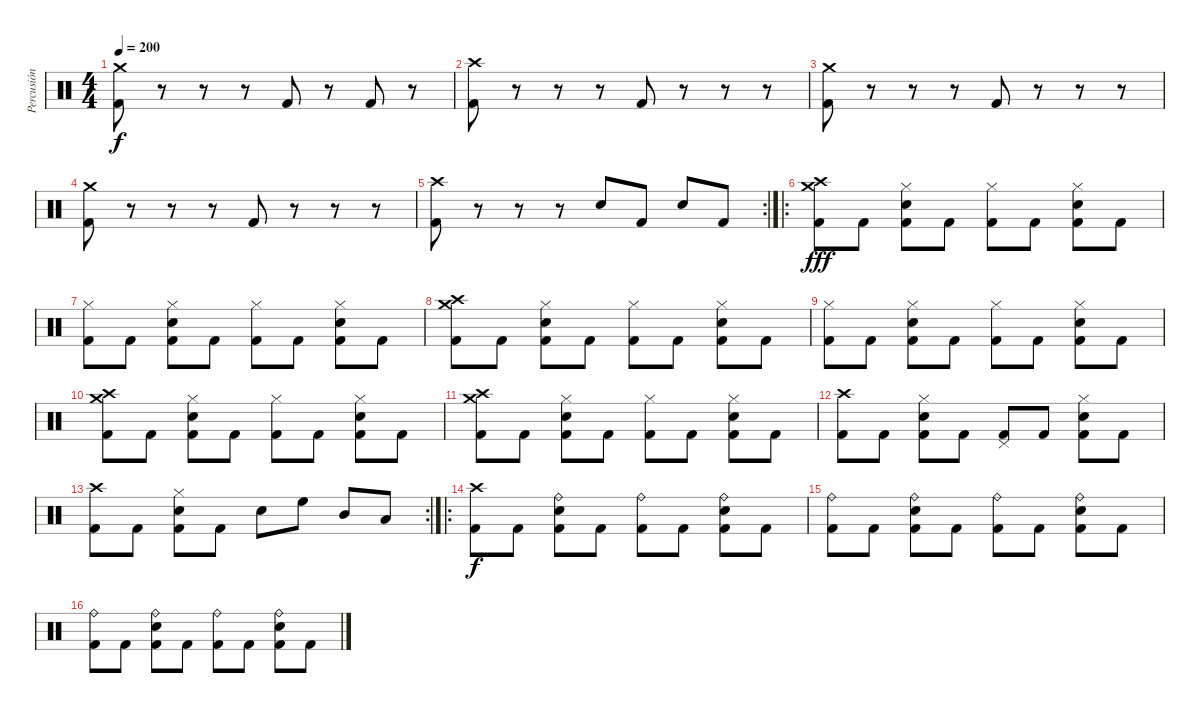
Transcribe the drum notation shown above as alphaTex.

\track ("Percusión" "Percusión") {instrument percussion}
\staff {score}
\articulation defaults
\ts (4 4)
\tempo 200
\clef neutral
\ks c
("Crash medium (hit)" "Kick (hit) 2").8{dy f} r.8 r.8 r.8 "Kick (hit) 2".8 r.8 "Kick (hit) 2".8 r.8 |
("Crash high (hit)" "Kick (hit) 2").8 r.8 r.8 r.8 "Kick (hit) 2".8 r.8 r.8 r.8 |
("Crash medium (hit)" "Kick (hit) 2").8 r.8 r.8 r.8 "Kick (hit) 2".8 r.8 r.8 r.8 |
("Crash medium (hit)" "Kick (hit) 2").8 r.8 r.8 r.8 "Kick (hit) 2".8 r.8 r.8 r.8 |
\rc 2
("Crash high (hit)" "Kick (hit) 2").8 r.8 r.8 r.8 "Electric Snare (hit)".8 "Kick (hit) 2".8 "Electric Snare (hit)".8 "Kick (hit) 2".8 |
\ro
("Crash high (hit)" "Crash medium (hit)" "Kick (hit) 2").8{dy fff} "Kick (hit) 2".8 ("Hi-Hat (closed)" "Electric Snare (hit)" "Kick (hit) 2").8 "Kick (hit) 2".8 ("Hi-Hat (closed)" "Kick (hit) 2").8 "Kick (hit) 2".8 ("Hi-Hat (closed)" "Electric Snare (hit)" "Kick (hit) 2").8 "Kick (hit) 2".8 |
("Hi-Hat (closed)" "Kick (hit) 2").8 "Kick (hit) 2".8 ("Hi-Hat (closed)" "Electric Snare (hit)" "Kick (hit) 2").8 "Kick (hit) 2".8 ("Hi-Hat (closed)" "Kick (hit) 2").8 "Kick (hit) 2".8 ("Hi-Hat (closed)" "Electric Snare (hit)" "Kick (hit) 2").8 "Kick (hit) 2".8 |
("Crash high (hit)" "Crash medium (hit)" "Kick (hit) 2").8 "Kick (hit) 2".8 ("Hi-Hat (closed)" "Electric Snare (hit)" "Kick (hit) 2").8 "Kick (hit) 2".8 ("Hi-Hat (closed)" "Kick (hit) 2").8 "Kick (hit) 2".8 ("Hi-Hat (closed)" "Electric Snare (hit)" "Kick (hit) 2").8 "Kick (hit) 2".8 |
("Hi-Hat (closed)" "Kick (hit) 2").8 "Kick (hit) 2".8 ("Hi-Hat (closed)" "Electric Snare (hit)" "Kick (hit) 2").8 "Kick (hit) 2".8 ("Hi-Hat (closed)" "Kick (hit) 2").8 "Kick (hit) 2".8 ("Hi-Hat (closed)" "Electric Snare (hit)" "Kick (hit) 2").8 "Kick (hit) 2".8 |
("Crash high (hit)" "Crash medium (hit)" "Kick (hit) 2").8 "Kick (hit) 2".8 ("Hi-Hat (closed)" "Electric Snare (hit)" "Kick (hit) 2").8 "Kick (hit) 2".8 ("Hi-Hat (closed)" "Kick (hit) 2").8 "Kick (hit) 2".8 ("Hi-Hat (closed)" "Electric Snare (hit)" "Kick (hit) 2").8 "Kick (hit) 2".8 |
("Crash high (hit)" "Crash medium (hit)" "Kick (hit) 2").8 "Kick (hit) 2".8 ("Hi-Hat (closed)" "Electric Snare (hit)" "Kick (hit) 2").8 "Kick (hit) 2".8 ("Hi-Hat (closed)" "Kick (hit) 2").8 "Kick (hit) 2".8 ("Hi-Hat (closed)" "Electric Snare (hit)" "Kick (hit) 2").8 "Kick (hit) 2".8 |
("Crash high (hit)" "Kick (hit) 2").8 "Kick (hit) 2".8 ("Hi-Hat (closed)" "Electric Snare (hit)" "Kick (hit) 2").8 "Kick (hit) 2".8 ("Pedal Hi-Hat (hit)" "Kick (hit) 2").8 "Kick (hit) 2".8 ("Hi-Hat (closed)" "Electric Snare (hit)" "Kick (hit) 2").8 "Kick (hit) 2".8 |
\rc 2
("Crash high (hit)" "Kick (hit) 2").8 "Kick (hit) 2".8 ("Hi-Hat (closed)" "Electric Snare (hit)" "Kick (hit) 2").8 "Kick (hit) 2".8 "Electric Snare (hit)".8 "High Floor Tom (hit)".8 "Mid Tom (hit)".8 "Low Tom (hit)".8 |
\ro
("Crash high (hit)" "Kick (hit) 2").8{dy f} "Kick (hit) 2".8 ("Ride (bell)" "Kick (hit) 2" "Electric Snare (hit)").8 "Kick (hit) 2".8 ("Ride (bell)" "Kick (hit) 2").8 "Kick (hit) 2".8 ("Ride (bell)" "Kick (hit) 2" "Electric Snare (hit)").8 "Kick (hit) 2".8 |
("Ride (bell)" "Kick (hit) 2").8 "Kick (hit) 2".8 ("Ride (bell)" "Kick (hit) 2" "Electric Snare (hit)").8 "Kick (hit) 2".8 ("Ride (bell)" "Kick (hit) 2").8 "Kick (hit) 2".8 ("Ride (bell)" "Kick (hit) 2" "Electric Snare (hit)").8 "Kick (hit) 2".8 |
("Ride (bell)" "Kick (hit) 2").8 "Kick (hit) 2".8 ("Ride (bell)" "Kick (hit) 2" "Electric Snare (hit)").8 "Kick (hit) 2".8 ("Ride (bell)" "Kick (hit) 2").8 "Kick (hit) 2".8 ("Ride (bell)" "Kick (hit) 2" "Electric Snare (hit)").8 "Kick (hit) 2".8
